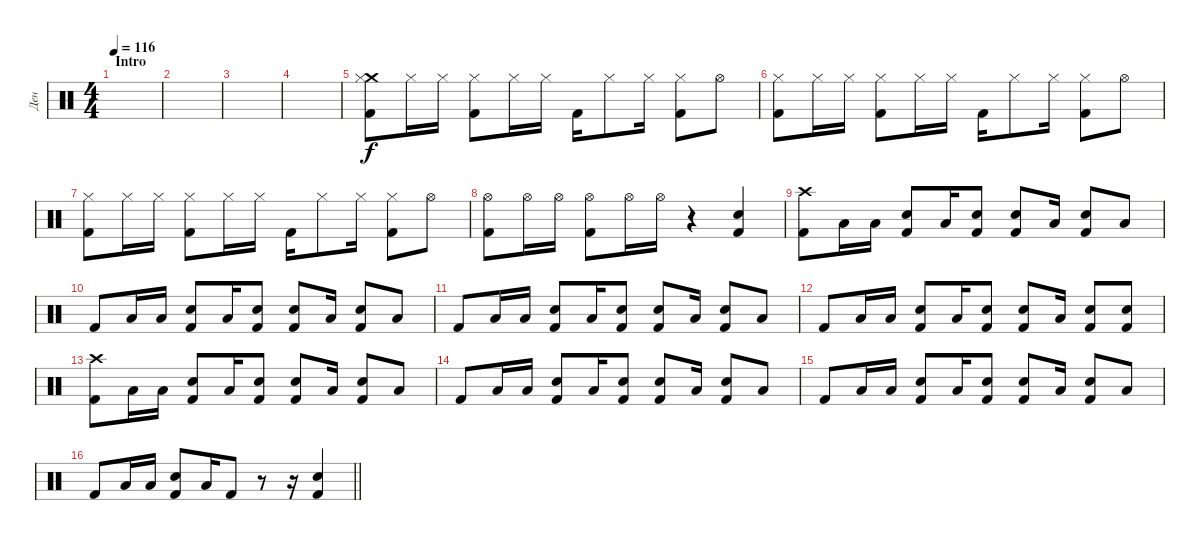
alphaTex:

\track ("Ден" "Ден") {instrument percussion}
\staff {score}
\articulation defaults
\ts (4 4)
\section ("" "Intro")
\tempo 116
\clef neutral
\ks c
|
|
|
|
("Crash medium (hit)" "Hi-Hat (closed)" "Kick (hit) 2").8 "Hi-Hat (closed)".16 "Hi-Hat (closed)".16 ("Hi-Hat (closed)" "Kick (hit) 2").8 "Hi-Hat (closed)".16 "Hi-Hat (closed)".16 "Kick (hit) 2".16 "Hi-Hat (closed)".8 "Hi-Hat (closed)".16 ("Hi-Hat (closed)" "Kick (hit) 2").8 "Hi-Hat (open)".8 |
("Hi-Hat (closed)" "Kick (hit) 2").8 "Hi-Hat (closed)".16 "Hi-Hat (closed)".16 ("Hi-Hat (closed)" "Kick (hit) 2").8 "Hi-Hat (closed)".16 "Hi-Hat (closed)".16 "Kick (hit) 2".16 "Hi-Hat (closed)".8 "Hi-Hat (closed)".16 ("Hi-Hat (closed)" "Kick (hit) 2").8 "Hi-Hat (open)".8 |
("Hi-Hat (closed)" "Kick (hit) 2").8 "Hi-Hat (closed)".16 "Hi-Hat (closed)".16 ("Hi-Hat (closed)" "Kick (hit) 2").8 "Hi-Hat (closed)".16 "Hi-Hat (closed)".16 "Kick (hit) 2".16 "Hi-Hat (closed)".8 "Hi-Hat (closed)".16 ("Hi-Hat (closed)" "Kick (hit) 2").8 "Hi-Hat (open)".8 |
("Hi-Hat (open)" "Kick (hit) 2").8 "Hi-Hat (open)".16 "Hi-Hat (open)".16 ("Hi-Hat (open)" "Kick (hit) 2").8 "Hi-Hat (open)".16 "Hi-Hat (open)".16 r.4 ("Electric Snare (hit)" "Kick (hit) 2").4 |
("Crash high (hit)" "Kick (hit) 2").8 "Low Tom (hit)".16 "Low Tom (hit)".16 ("Electric Snare (hit)" "Kick (hit) 2").8 "Low Tom (hit)".16 ("Electric Snare (hit)" "Kick (hit) 2").8 ("Electric Snare (hit)" "Kick (hit) 2").8 "Low Tom (hit)".16 ("Electric Snare (hit)" "Kick (hit) 2").8 "Low Tom (hit)".8 |
"Kick (hit) 2".8 "Low Tom (hit)".16 "Low Tom (hit)".16 ("Electric Snare (hit)" "Kick (hit) 2").8 "Low Tom (hit)".16 ("Electric Snare (hit)" "Kick (hit) 2").8 ("Electric Snare (hit)" "Kick (hit) 2").8 "Low Tom (hit)".16 ("Electric Snare (hit)" "Kick (hit) 2").8 "Low Tom (hit)".8 |
"Kick (hit) 2".8 "Low Tom (hit)".16 "Low Tom (hit)".16 ("Electric Snare (hit)" "Kick (hit) 2").8 "Low Tom (hit)".16 ("Electric Snare (hit)" "Kick (hit) 2").8 ("Electric Snare (hit)" "Kick (hit) 2").8 "Low Tom (hit)".16 ("Electric Snare (hit)" "Kick (hit) 2").8 "Low Tom (hit)".8 |
"Kick (hit) 2".8 "Low Tom (hit)".16 "Low Tom (hit)".16 ("Electric Snare (hit)" "Kick (hit) 2").8 "Low Tom (hit)".16 ("Electric Snare (hit)" "Kick (hit) 2").8 ("Electric Snare (hit)" "Kick (hit) 2").8 "Low Tom (hit)".16 ("Electric Snare (hit)" "Kick (hit) 2").8 ("Electric Snare (hit)" "Kick (hit) 2").8 |
("Crash high (hit)" "Kick (hit) 2").8 "Low Tom (hit)".16 "Low Tom (hit)".16 ("Electric Snare (hit)" "Kick (hit) 2").8 "Low Tom (hit)".16 ("Electric Snare (hit)" "Kick (hit) 2").8 ("Electric Snare (hit)" "Kick (hit) 2").8 "Low Tom (hit)".16 ("Electric Snare (hit)" "Kick (hit) 2").8 "Low Tom (hit)".8 |
"Kick (hit) 2".8 "Low Tom (hit)".16 "Low Tom (hit)".16 ("Electric Snare (hit)" "Kick (hit) 2").8 "Low Tom (hit)".16 ("Electric Snare (hit)" "Kick (hit) 2").8 ("Electric Snare (hit)" "Kick (hit) 2").8 "Low Tom (hit)".16 ("Electric Snare (hit)" "Kick (hit) 2").8 "Low Tom (hit)".8 |
"Kick (hit) 2".8 "Low Tom (hit)".16 "Low Tom (hit)".16 ("Electric Snare (hit)" "Kick (hit) 2").8 "Low Tom (hit)".16 ("Electric Snare (hit)" "Kick (hit) 2").8 ("Electric Snare (hit)" "Kick (hit) 2").8 "Low Tom (hit)".16 ("Electric Snare (hit)" "Kick (hit) 2").8 "Low Tom (hit)".8 |
\barLineRight lightlight "Kick (hit) 2".8 "Low Tom (hit)".16 "Low Tom (hit)".16
("Electric Snare (hit)" "Kick (hit) 2").8 "Low Tom (hit)".16 "Kick (hit) 2".8 r.8 r.16 ("Electric Snare (hit)" "Kick (hit) 2").4
